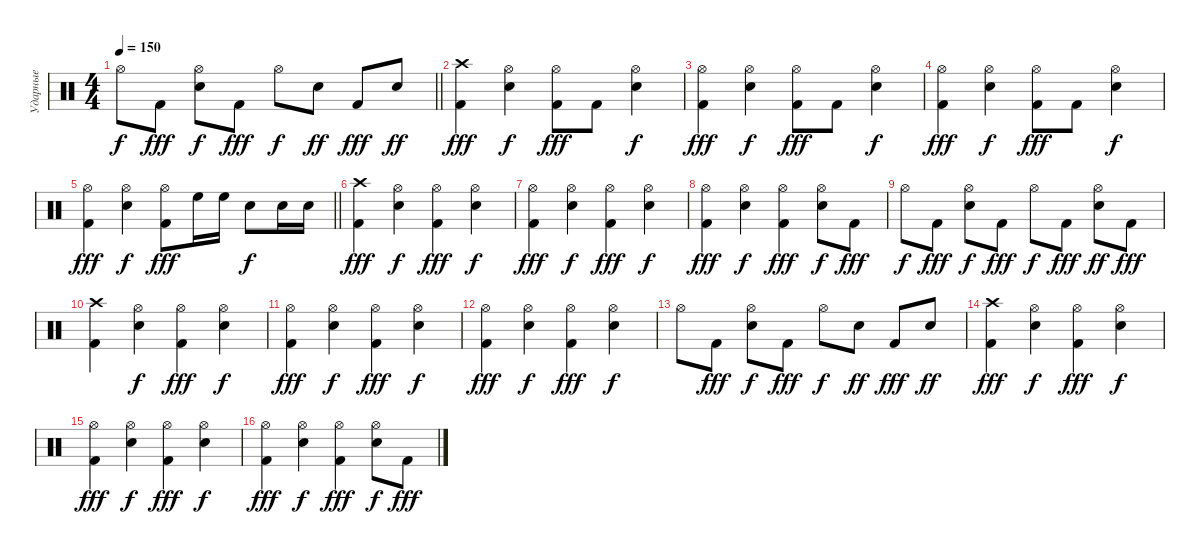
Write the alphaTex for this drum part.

\track ("Ударные" "Ударные") {instrument percussion}
\staff {score}
\articulation defaults
\ts (4 4)
\tempo 150
\clef neutral
\barLineRight lightlight
\ks c "Hi-Hat (open)".8{dy f} "Kick (hit) 2".8{dy fff}
("Snare (hit) 2" "Hi-Hat (open)").8{dy f} "Kick (hit) 2".8{dy fff} "Hi-Hat (open)".8{dy f} "Snare (hit) 2".8{dy ff} "Kick (hit) 2".8{dy fff} "Snare (hit) 2".8{dy ff} |
("Kick (hit) 2" "Crash high (hit)").4{dy fff} ("Snare (hit) 2" "Hi-Hat (open)").4{dy f} ("Kick (hit) 2" "Hi-Hat (open)").8{dy fff} "Kick (hit) 2".8 ("Snare (hit) 2" "Hi-Hat (open)").4{dy f} |
("Kick (hit) 2" "Hi-Hat (open)").4{dy fff} ("Snare (hit) 2" "Hi-Hat (open)").4{dy f} ("Kick (hit) 2" "Hi-Hat (open)").8{dy fff} "Kick (hit) 2".8 ("Snare (hit) 2" "Hi-Hat (open)").4{dy f} |
("Kick (hit) 2" "Hi-Hat (open)").4{dy fff} ("Snare (hit) 2" "Hi-Hat (open)").4{dy f} ("Kick (hit) 2" "Hi-Hat (open)").8{dy fff} "Kick (hit) 2".8 ("Snare (hit) 2" "Hi-Hat (open)").4{dy f} |
\barLineRight lightlight
("Kick (hit) 2" "Hi-Hat (open)").4{dy fff} ("Snare (hit) 2" "Hi-Hat (open)").4{dy f} ("Kick (hit) 2" "Hi-Hat (open)").8{dy fff} "High Floor Tom (hit)".16 "High Floor Tom (hit)".16 "Snare (hit) 2".8{dy f} "Snare (hit) 2".16 "Snare (hit) 2".16 |
("Kick (hit) 2" "Crash high (hit)").4{dy fff} ("Snare (hit) 2" "Hi-Hat (open)").4{dy f} ("Kick (hit) 2" "Hi-Hat (open)").4{dy fff} ("Snare (hit) 2" "Hi-Hat (open)").4{dy f} |
("Kick (hit) 2" "Hi-Hat (open)").4{dy fff} ("Snare (hit) 2" "Hi-Hat (open)").4{dy f} ("Kick (hit) 2" "Hi-Hat (open)").4{dy fff} ("Snare (hit) 2" "Hi-Hat (open)").4{dy f} |
("Kick (hit) 2" "Hi-Hat (open)").4{dy fff} ("Snare (hit) 2" "Hi-Hat (open)").4{dy f} ("Kick (hit) 2" "Hi-Hat (open)").4{dy fff} ("Snare (hit) 2" "Hi-Hat (open)").8{dy f} "Kick (hit) 2".8{dy fff} |
"Hi-Hat (open)".8{dy f} "Kick (hit) 2".8{dy fff} ("Snare (hit) 2" "Hi-Hat (open)").8{dy f} "Kick (hit) 2".8{dy fff} "Hi-Hat (open)".8{dy f} "Kick (hit) 2".8{dy fff} ("Snare (hit) 2" "Hi-Hat (open)").8{dy ff} "Kick (hit) 2".8{dy fff} |
("Kick (hit) 2" "Crash high (hit)").4 ("Snare (hit) 2" "Hi-Hat (open)").4{dy f} ("Kick (hit) 2" "Hi-Hat (open)").4{dy fff} ("Snare (hit) 2" "Hi-Hat (open)").4{dy f} |
("Kick (hit) 2" "Hi-Hat (open)").4{dy fff} ("Snare (hit) 2" "Hi-Hat (open)").4{dy f} ("Kick (hit) 2" "Hi-Hat (open)").4{dy fff} ("Snare (hit) 2" "Hi-Hat (open)").4{dy f} |
("Kick (hit) 2" "Hi-Hat (open)").4{dy fff} ("Snare (hit) 2" "Hi-Hat (open)").4{dy f} ("Kick (hit) 2" "Hi-Hat (open)").4{dy fff} ("Snare (hit) 2" "Hi-Hat (open)").4{dy f} |
"Hi-Hat (open)".8 "Kick (hit) 2".8{dy fff} ("Snare (hit) 2" "Hi-Hat (open)").8{dy f} "Kick (hit) 2".8{dy fff} "Hi-Hat (open)".8{dy f} "Snare (hit) 2".8{dy ff} "Kick (hit) 2".8{dy fff} "Snare (hit) 2".8{dy ff} |
("Kick (hit) 2" "Crash high (hit)").4{dy fff} ("Snare (hit) 2" "Hi-Hat (open)").4{dy f} ("Kick (hit) 2" "Hi-Hat (open)").4{dy fff} ("Snare (hit) 2" "Hi-Hat (open)").4{dy f} |
("Kick (hit) 2" "Hi-Hat (open)").4{dy fff} ("Snare (hit) 2" "Hi-Hat (open)").4{dy f} ("Kick (hit) 2" "Hi-Hat (open)").4{dy fff} ("Snare (hit) 2" "Hi-Hat (open)").4{dy f} |
("Kick (hit) 2" "Hi-Hat (open)").4{dy fff} ("Snare (hit) 2" "Hi-Hat (open)").4{dy f} ("Kick (hit) 2" "Hi-Hat (open)").4{dy fff} ("Snare (hit) 2" "Hi-Hat (open)").8{dy f} "Kick (hit) 2".8{dy fff}
